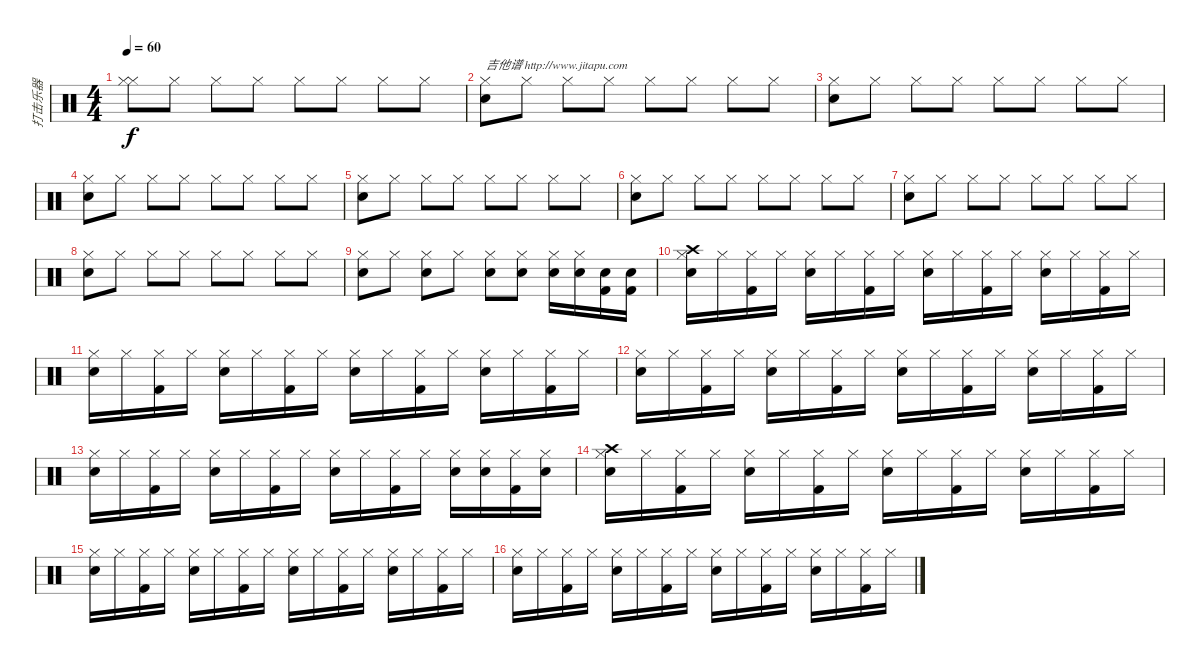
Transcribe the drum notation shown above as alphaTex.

\track ("打击乐器" "打击乐器") {instrument percussion}
\staff {score}
\articulation defaults
\ts (4 4)
\tempo 60
\clef neutral
\ks c
("Hi-Hat (closed)" "Hi-Hat (closed)").8{dy f} "Hi-Hat (closed)".8 "Hi-Hat (closed)".8 "Hi-Hat (closed)".8 "Hi-Hat (closed)".8 "Hi-Hat (closed)".8 "Hi-Hat (closed)".8 "Hi-Hat (closed)".8 |
("Snare (hit) 2" "Hi-Hat (closed)").8{txt "吉他谱 http://www.jitapu.com"} "Hi-Hat (closed)".8 "Hi-Hat (closed)".8 "Hi-Hat (closed)".8 "Hi-Hat (closed)".8 "Hi-Hat (closed)".8 "Hi-Hat (closed)".8 "Hi-Hat (closed)".8 |
("Snare (hit) 2" "Hi-Hat (closed)").8 "Hi-Hat (closed)".8 "Hi-Hat (closed)".8 "Hi-Hat (closed)".8 "Hi-Hat (closed)".8 "Hi-Hat (closed)".8 "Hi-Hat (closed)".8 "Hi-Hat (closed)".8 |
("Snare (hit) 2" "Hi-Hat (closed)").8 "Hi-Hat (closed)".8 "Hi-Hat (closed)".8 "Hi-Hat (closed)".8 "Hi-Hat (closed)".8 "Hi-Hat (closed)".8 "Hi-Hat (closed)".8 "Hi-Hat (closed)".8 |
("Snare (hit) 2" "Hi-Hat (closed)").8 "Hi-Hat (closed)".8 "Hi-Hat (closed)".8 "Hi-Hat (closed)".8 "Hi-Hat (closed)".8 "Hi-Hat (closed)".8 "Hi-Hat (closed)".8 "Hi-Hat (closed)".8 |
("Snare (hit) 2" "Hi-Hat (closed)").8 "Hi-Hat (closed)".8 "Hi-Hat (closed)".8 "Hi-Hat (closed)".8 "Hi-Hat (closed)".8 "Hi-Hat (closed)".8 "Hi-Hat (closed)".8 "Hi-Hat (closed)".8 |
("Snare (hit) 2" "Hi-Hat (closed)").8 "Hi-Hat (closed)".8 "Hi-Hat (closed)".8 "Hi-Hat (closed)".8 "Hi-Hat (closed)".8 "Hi-Hat (closed)".8 "Hi-Hat (closed)".8 "Hi-Hat (closed)".8 |
("Snare (hit) 2" "Hi-Hat (closed)").8 "Hi-Hat (closed)".8 "Hi-Hat (closed)".8 "Hi-Hat (closed)".8 "Hi-Hat (closed)".8 "Hi-Hat (closed)".8 "Hi-Hat (closed)".8 "Hi-Hat (closed)".8 |
("Snare (hit) 2" "Hi-Hat (closed)").8 "Hi-Hat (closed)".8 ("Snare (hit) 2" "Hi-Hat (closed)").8 "Hi-Hat (closed)".8 ("Snare (hit) 2" "Hi-Hat (closed)").8 ("Snare (hit) 2" "Hi-Hat (closed)").8 ("Snare (hit) 2" "Hi-Hat (closed)").16 ("Snare (hit) 2" "Hi-Hat (closed)").16 ("Kick (hit) 2" "Snare (hit) 2").16 ("Kick (hit) 2" "Snare (hit) 2").16 |
("Crash high (hit)" "Snare (hit) 2" "Hi-Hat (closed)").16 "Hi-Hat (closed)".16 ("Kick (hit) 2" "Hi-Hat (closed)").16 "Hi-Hat (closed)".16 ("Snare (hit) 2" "Hi-Hat (closed)").16 "Hi-Hat (closed)".16 ("Kick (hit) 2" "Hi-Hat (closed)").16 "Hi-Hat (closed)".16 ("Snare (hit) 2" "Hi-Hat (closed)").16 "Hi-Hat (closed)".16 ("Kick (hit) 2" "Hi-Hat (closed)").16 "Hi-Hat (closed)".16 ("Snare (hit) 2" "Hi-Hat (closed)").16 "Hi-Hat (closed)".16 ("Kick (hit) 2" "Hi-Hat (closed)").16 "Hi-Hat (closed)".16 |
("Snare (hit) 2" "Hi-Hat (closed)").16 "Hi-Hat (closed)".16 ("Kick (hit) 2" "Hi-Hat (closed)").16 "Hi-Hat (closed)".16 ("Snare (hit) 2" "Hi-Hat (closed)").16 "Hi-Hat (closed)".16 ("Kick (hit) 2" "Hi-Hat (closed)").16 "Hi-Hat (closed)".16 ("Snare (hit) 2" "Hi-Hat (closed)").16 "Hi-Hat (closed)".16 ("Kick (hit) 2" "Hi-Hat (closed)").16 "Hi-Hat (closed)".16 ("Snare (hit) 2" "Hi-Hat (closed)").16 "Hi-Hat (closed)".16 ("Kick (hit) 2" "Hi-Hat (closed)").16 "Hi-Hat (closed)".16 |
("Snare (hit) 2" "Hi-Hat (closed)").16 "Hi-Hat (closed)".16 ("Kick (hit) 2" "Hi-Hat (closed)").16 "Hi-Hat (closed)".16 ("Snare (hit) 2" "Hi-Hat (closed)").16 "Hi-Hat (closed)".16 ("Kick (hit) 2" "Hi-Hat (closed)").16 "Hi-Hat (closed)".16 ("Snare (hit) 2" "Hi-Hat (closed)").16 "Hi-Hat (closed)".16 ("Kick (hit) 2" "Hi-Hat (closed)").16 "Hi-Hat (closed)".16 ("Snare (hit) 2" "Hi-Hat (closed)").16 "Hi-Hat (closed)".16 ("Kick (hit) 2" "Hi-Hat (closed)").16 "Hi-Hat (closed)".16 |
("Snare (hit) 2" "Hi-Hat (closed)").16 "Hi-Hat (closed)".16 ("Kick (hit) 2" "Hi-Hat (closed)").16 "Hi-Hat (closed)".16 ("Snare (hit) 2" "Hi-Hat (closed)").16 "Hi-Hat (closed)".16 ("Kick (hit) 2" "Hi-Hat (closed)").16 "Hi-Hat (closed)".16 ("Snare (hit) 2" "Hi-Hat (closed)").16 "Hi-Hat (closed)".16 ("Kick (hit) 2" "Hi-Hat (closed)").16 "Hi-Hat (closed)".16 ("Snare (hit) 2" "Hi-Hat (closed)").16 ("Snare (hit) 2" "Hi-Hat (closed)").16 ("Kick (hit) 2" "Hi-Hat (closed)").16 ("Snare (hit) 2" "Hi-Hat (closed)").16 |
("Crash high (hit)" "Snare (hit) 2" "Hi-Hat (closed)").16 "Hi-Hat (closed)".16 ("Kick (hit) 2" "Hi-Hat (closed)").16 "Hi-Hat (closed)".16 ("Snare (hit) 2" "Hi-Hat (closed)").16 "Hi-Hat (closed)".16 ("Kick (hit) 2" "Hi-Hat (closed)").16 "Hi-Hat (closed)".16 ("Snare (hit) 2" "Hi-Hat (closed)").16 "Hi-Hat (closed)".16 ("Kick (hit) 2" "Hi-Hat (closed)").16 "Hi-Hat (closed)".16 ("Snare (hit) 2" "Hi-Hat (closed)").16 "Hi-Hat (closed)".16 ("Kick (hit) 2" "Hi-Hat (closed)").16 "Hi-Hat (closed)".16 |
("Snare (hit) 2" "Hi-Hat (closed)").16 "Hi-Hat (closed)".16 ("Kick (hit) 2" "Hi-Hat (closed)").16 "Hi-Hat (closed)".16 ("Snare (hit) 2" "Hi-Hat (closed)").16 "Hi-Hat (closed)".16 ("Kick (hit) 2" "Hi-Hat (closed)").16 "Hi-Hat (closed)".16 ("Snare (hit) 2" "Hi-Hat (closed)").16 "Hi-Hat (closed)".16 ("Kick (hit) 2" "Hi-Hat (closed)").16 "Hi-Hat (closed)".16 ("Snare (hit) 2" "Hi-Hat (closed)").16 "Hi-Hat (closed)".16 ("Kick (hit) 2" "Hi-Hat (closed)").16 "Hi-Hat (closed)".16 |
("Snare (hit) 2" "Hi-Hat (closed)").16 "Hi-Hat (closed)".16 ("Kick (hit) 2" "Hi-Hat (closed)").16 "Hi-Hat (closed)".16 ("Snare (hit) 2" "Hi-Hat (closed)").16 "Hi-Hat (closed)".16 ("Kick (hit) 2" "Hi-Hat (closed)").16 "Hi-Hat (closed)".16 ("Snare (hit) 2" "Hi-Hat (closed)").16 "Hi-Hat (closed)".16 ("Kick (hit) 2" "Hi-Hat (closed)").16 "Hi-Hat (closed)".16 ("Snare (hit) 2" "Hi-Hat (closed)").16 "Hi-Hat (closed)".16 ("Kick (hit) 2" "Hi-Hat (closed)").16 "Hi-Hat (closed)".16
